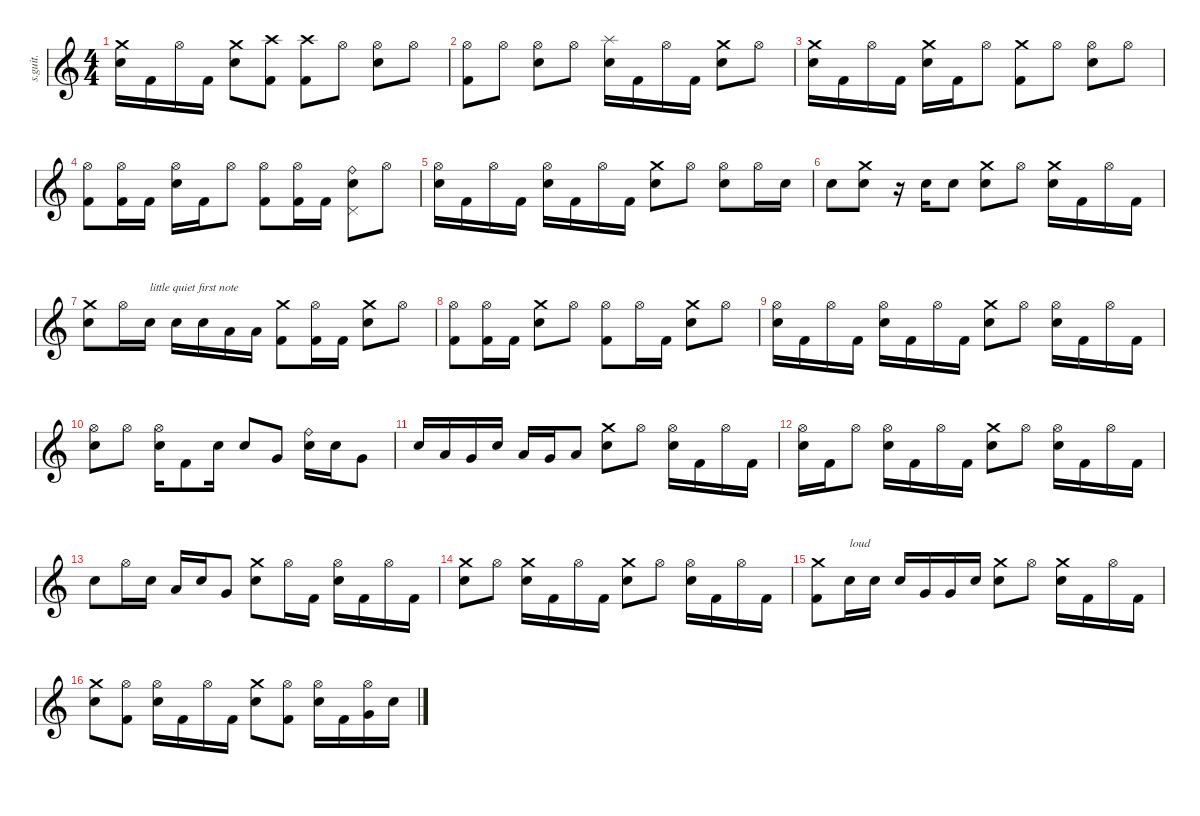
\defaultSystemsLayout 4
\hideDynamics
\bracketExtendMode nobrackets
\track ("Lars Ulrich" "s.guit.") {instrument percussion}
\staff {score}
\articulation defaults
\ts (4 4)
\tempo (69 hide)
\clef g2
\ks c
("Crash medium (hit)" "Snare (hit) 2").16{lyrics (0 "") lyrics (1 "") lyrics (2 "") lyrics (3 "") lyrics (4 "") dy fff} "Kick (hit) 2".16{lyrics (0 "") lyrics (1 "") lyrics (2 "") lyrics (3 "") lyrics (4 "")} "Hi-Hat (open)".16{lyrics (0 "") lyrics (1 "") lyrics (2 "") lyrics (3 "") lyrics (4 "") dy f} "Kick (hit) 2".16{lyrics (0 "") lyrics (1 "") lyrics (2 "") lyrics (3 "") lyrics (4 "") dy fff} ("Crash medium (hit)" "Snare (hit) 2").8{lyrics (0 "") lyrics (1 "") lyrics (2 "") lyrics (3 "") lyrics (4 "")} ("Crash high (hit)" "Kick (hit) 2").8{lyrics (0 "") lyrics (1 "") lyrics (2 "") lyrics (3 "") lyrics (4 "")} ("Crash high (hit)" "Kick (hit) 2").8{lyrics (0 "") lyrics (1 "") lyrics (2 "") lyrics (3 "") lyrics (4 "")} "Hi-Hat (open)".8{lyrics (0 "") lyrics (1 "") lyrics (2 "") lyrics (3 "") lyrics (4 "") dy f} ("Hi-Hat (open)" "Snare (hit) 2").8{lyrics (0 "") lyrics (1 "") lyrics (2 "") lyrics (3 "") lyrics (4 "")} "Hi-Hat (open)".8{lyrics (0 "") lyrics (1 "") lyrics (2 "") lyrics (3 "") lyrics (4 "")} |
("Hi-Hat (open)" "Kick (hit) 2").8{lyrics (0 "") lyrics (1 "") lyrics (2 "") lyrics (3 "") lyrics (4 "")} "Hi-Hat (open)".8{lyrics (0 "") lyrics (1 "") lyrics (2 "") lyrics (3 "") lyrics (4 "")} ("Hi-Hat (open)" "Snare (hit) 2").8{lyrics (0 "") lyrics (1 "") lyrics (2 "") lyrics (3 "") lyrics (4 "")} "Hi-Hat (open)".8{lyrics (0 "") lyrics (1 "") lyrics (2 "") lyrics (3 "") lyrics (4 "")} ("Splash (hit)" "Snare (hit) 2").16{lyrics (0 "") lyrics (1 "") lyrics (2 "") lyrics (3 "") lyrics (4 "") dy fff} "Kick (hit) 2".16{lyrics (0 "") lyrics (1 "") lyrics (2 "") lyrics (3 "") lyrics (4 "")} "Hi-Hat (open)".16{lyrics (0 "") lyrics (1 "") lyrics (2 "") lyrics (3 "") lyrics (4 "") dy f} "Kick (hit) 2".16{lyrics (0 "") lyrics (1 "") lyrics (2 "") lyrics (3 "") lyrics (4 "") dy fff} ("Crash medium (hit)" "Snare (hit) 2").8{lyrics (0 "") lyrics (1 "") lyrics (2 "") lyrics (3 "") lyrics (4 "")} "Hi-Hat (open)".8{lyrics (0 "") lyrics (1 "") lyrics (2 "") lyrics (3 "") lyrics (4 "") dy f} |
("Crash medium (hit)" "Snare (hit) 2").16{lyrics (0 "") lyrics (1 "") lyrics (2 "") lyrics (3 "") lyrics (4 "") dy fff} "Kick (hit) 2".16{lyrics (0 "") lyrics (1 "") lyrics (2 "") lyrics (3 "") lyrics (4 "")} "Hi-Hat (open)".16{lyrics (0 "") lyrics (1 "") lyrics (2 "") lyrics (3 "") lyrics (4 "") dy f} "Kick (hit) 2".16{lyrics (0 "") lyrics (1 "") lyrics (2 "") lyrics (3 "") lyrics (4 "") dy fff} ("Crash medium (hit)" "Snare (hit) 2").16{lyrics (0 "") lyrics (1 "") lyrics (2 "") lyrics (3 "") lyrics (4 "")} "Kick (hit) 2".16{lyrics (0 "") lyrics (1 "") lyrics (2 "") lyrics (3 "") lyrics (4 "")} "Hi-Hat (open)".8{lyrics (0 "") lyrics (1 "") lyrics (2 "") lyrics (3 "") lyrics (4 "") dy f} ("Crash medium (hit)" "Kick (hit) 2").8{lyrics (0 "") lyrics (1 "") lyrics (2 "") lyrics (3 "") lyrics (4 "") dy fff} "Hi-Hat (open)".8{lyrics (0 "") lyrics (1 "") lyrics (2 "") lyrics (3 "") lyrics (4 "") dy f} ("Hi-Hat (open)" "Snare (hit) 2").8{lyrics (0 "") lyrics (1 "") lyrics (2 "") lyrics (3 "") lyrics (4 "")} "Hi-Hat (open)".8{lyrics (0 "") lyrics (1 "") lyrics (2 "") lyrics (3 "") lyrics (4 "")} |
("Hi-Hat (open)" "Kick (hit) 2").8{lyrics (0 "") lyrics (1 "") lyrics (2 "") lyrics (3 "") lyrics (4 "")} ("Hi-Hat (open)" "Kick (hit) 2").16{lyrics (0 "") lyrics (1 "") lyrics (2 "") lyrics (3 "") lyrics (4 "")} "Kick (hit) 2".16{lyrics (0 "") lyrics (1 "") lyrics (2 "") lyrics (3 "") lyrics (4 "") dy fff} ("Hi-Hat (open)" "Snare (hit) 2").16{lyrics (0 "") lyrics (1 "") lyrics (2 "") lyrics (3 "") lyrics (4 "") dy f} "Kick (hit) 2".16{lyrics (0 "") lyrics (1 "") lyrics (2 "") lyrics (3 "") lyrics (4 "") dy fff} "Hi-Hat (open)".8{lyrics (0 "") lyrics (1 "") lyrics (2 "") lyrics (3 "") lyrics (4 "") dy f} ("Hi-Hat (open)" "Kick (hit) 2").8{lyrics (0 "") lyrics (1 "") lyrics (2 "") lyrics (3 "") lyrics (4 "")} ("Hi-Hat (open)" "Kick (hit) 2").16{lyrics (0 "") lyrics (1 "") lyrics (2 "") lyrics (3 "") lyrics (4 "")} "Kick (hit) 2".16{lyrics (0 "") lyrics (1 "") lyrics (2 "") lyrics (3 "") lyrics (4 "") dy fff} ("Pedal Hi-Hat (hit)" "Ride (bell)" "Snare (hit) 2").8{lyrics (0 "") lyrics (1 "") lyrics (2 "") lyrics (3 "") lyrics (4 "") dy f} "Hi-Hat (open)".8{lyrics (0 "") lyrics (1 "") lyrics (2 "") lyrics (3 "") lyrics (4 "")} |
("Hi-Hat (open)" "Snare (hit) 2").16{lyrics (0 "") lyrics (1 "") lyrics (2 "") lyrics (3 "") lyrics (4 "")} "Kick (hit) 2".16{lyrics (0 "") lyrics (1 "") lyrics (2 "") lyrics (3 "") lyrics (4 "") dy fff} "Hi-Hat (open)".16{lyrics (0 "") lyrics (1 "") lyrics (2 "") lyrics (3 "") lyrics (4 "") dy f} "Kick (hit) 2".16{lyrics (0 "") lyrics (1 "") lyrics (2 "") lyrics (3 "") lyrics (4 "") dy fff} ("Hi-Hat (open)" "Snare (hit) 2").16{lyrics (0 "") lyrics (1 "") lyrics (2 "") lyrics (3 "") lyrics (4 "") dy f} "Kick (hit) 2".16{lyrics (0 "") lyrics (1 "") lyrics (2 "") lyrics (3 "") lyrics (4 "") dy fff} "Hi-Hat (open)".16{lyrics (0 "") lyrics (1 "") lyrics (2 "") lyrics (3 "") lyrics (4 "") dy f} "Kick (hit) 2".16{lyrics (0 "") lyrics (1 "") lyrics (2 "") lyrics (3 "") lyrics (4 "") dy fff} ("Crash medium (hit)" "Snare (hit) 2").8{lyrics (0 "") lyrics (1 "") lyrics (2 "") lyrics (3 "") lyrics (4 "")} "Hi-Hat (open)".8{lyrics (0 "") lyrics (1 "") lyrics (2 "") lyrics (3 "") lyrics (4 "") dy f} ("Hi-Hat (open)" "Snare (hit) 2").8{lyrics (0 "") lyrics (1 "") lyrics (2 "") lyrics (3 "") lyrics (4 "")} "Hi-Hat (open)".16{lyrics (0 "") lyrics (1 "") lyrics (2 "") lyrics (3 "") lyrics (4 "")} "Snare (hit) 2".16{lyrics (0 "") lyrics (1 "") lyrics (2 "") lyrics (3 "") lyrics (4 "") dy fff} |
"Snare (hit) 2".8{lyrics (0 "") lyrics (1 "") lyrics (2 "") lyrics (3 "") lyrics (4 "")} ("Crash medium (hit)" "Snare (hit) 2").8{lyrics (0 "") lyrics (1 "") lyrics (2 "") lyrics (3 "") lyrics (4 "")} r.16 "Snare (hit) 2".16{lyrics (0 "") lyrics (1 "") lyrics (2 "") lyrics (3 "") lyrics (4 "")} "Snare (hit) 2".8{lyrics (0 "") lyrics (1 "") lyrics (2 "") lyrics (3 "") lyrics (4 "")} ("Crash medium (hit)" "Snare (hit) 2").8{lyrics (0 "") lyrics (1 "") lyrics (2 "") lyrics (3 "") lyrics (4 "")} "Hi-Hat (open)".8{lyrics (0 "") lyrics (1 "") lyrics (2 "") lyrics (3 "") lyrics (4 "") dy f} ("Crash medium (hit)" "Snare (hit) 2").16{lyrics (0 "") lyrics (1 "") lyrics (2 "") lyrics (3 "") lyrics (4 "") dy fff} "Kick (hit) 2".16{lyrics (0 "") lyrics (1 "") lyrics (2 "") lyrics (3 "") lyrics (4 "")} "Hi-Hat (open)".16{lyrics (0 "") lyrics (1 "") lyrics (2 "") lyrics (3 "") lyrics (4 "") dy f} "Kick (hit) 2".16{lyrics (0 "") lyrics (1 "") lyrics (2 "") lyrics (3 "") lyrics (4 "") dy fff} |
("Crash medium (hit)" "Snare (hit) 2").8{lyrics (0 "") lyrics (1 "") lyrics (2 "") lyrics (3 "") lyrics (4 "")} "Hi-Hat (open)".16{lyrics (0 "") lyrics (1 "") lyrics (2 "") lyrics (3 "") lyrics (4 "") dy f} "Snare (hit) 2".16{txt "little quiet first note" lyrics (0 "") lyrics (1 "") lyrics (2 "") lyrics (3 "") lyrics (4 "")} "Snare (hit) 2".16{lyrics (0 "") lyrics (1 "") lyrics (2 "") lyrics (3 "") lyrics (4 "") dy fff} "Snare (hit) 2".16{lyrics (0 "") lyrics (1 "") lyrics (2 "") lyrics (3 "") lyrics (4 "")} "Low Floor Tom (hit)".16{lyrics (0 "") lyrics (1 "") lyrics (2 "") lyrics (3 "") lyrics (4 "")} "Low Floor Tom (hit)".16{lyrics (0 "") lyrics (1 "") lyrics (2 "") lyrics (3 "") lyrics (4 "")} ("Crash medium (hit)" "Kick (hit) 2").8{lyrics (0 "") lyrics (1 "") lyrics (2 "") lyrics (3 "") lyrics (4 "")} ("Hi-Hat (open)" "Kick (hit) 2").16{lyrics (0 "") lyrics (1 "") lyrics (2 "") lyrics (3 "") lyrics (4 "") dy f} "Kick (hit) 2".16{lyrics (0 "") lyrics (1 "") lyrics (2 "") lyrics (3 "") lyrics (4 "") dy fff} ("Crash medium (hit)" "Snare (hit) 2").8{lyrics (0 "") lyrics (1 "") lyrics (2 "") lyrics (3 "") lyrics (4 "")} "Hi-Hat (open)".8{lyrics (0 "") lyrics (1 "") lyrics (2 "") lyrics (3 "") lyrics (4 "") dy f} |
("Hi-Hat (open)" "Kick (hit) 2").8{lyrics (0 "") lyrics (1 "") lyrics (2 "") lyrics (3 "") lyrics (4 "")} ("Hi-Hat (open)" "Kick (hit) 2").16{lyrics (0 "") lyrics (1 "") lyrics (2 "") lyrics (3 "") lyrics (4 "")} "Kick (hit) 2".16{lyrics (0 "") lyrics (1 "") lyrics (2 "") lyrics (3 "") lyrics (4 "") dy fff} ("Crash medium (hit)" "Snare (hit) 2").8{lyrics (0 "") lyrics (1 "") lyrics (2 "") lyrics (3 "") lyrics (4 "")} "Hi-Hat (open)".8{lyrics (0 "") lyrics (1 "") lyrics (2 "") lyrics (3 "") lyrics (4 "") dy f} ("Hi-Hat (open)" "Kick (hit) 2").8{lyrics (0 "") lyrics (1 "") lyrics (2 "") lyrics (3 "") lyrics (4 "")} "Hi-Hat (open)".16{lyrics (0 "") lyrics (1 "") lyrics (2 "") lyrics (3 "") lyrics (4 "")} "Kick (hit) 2".16{lyrics (0 "") lyrics (1 "") lyrics (2 "") lyrics (3 "") lyrics (4 "") dy fff} ("Crash medium (hit)" "Snare (hit) 2").8{lyrics (0 "") lyrics (1 "") lyrics (2 "") lyrics (3 "") lyrics (4 "")} "Hi-Hat (open)".8{lyrics (0 "") lyrics (1 "") lyrics (2 "") lyrics (3 "") lyrics (4 "") dy f} |
("Hi-Hat (open)" "Snare (hit) 2").16{lyrics (0 "") lyrics (1 "") lyrics (2 "") lyrics (3 "") lyrics (4 "")} "Kick (hit) 2".16{lyrics (0 "") lyrics (1 "") lyrics (2 "") lyrics (3 "") lyrics (4 "") dy fff} "Hi-Hat (open)".16{lyrics (0 "") lyrics (1 "") lyrics (2 "") lyrics (3 "") lyrics (4 "") dy f} "Kick (hit) 2".16{lyrics (0 "") lyrics (1 "") lyrics (2 "") lyrics (3 "") lyrics (4 "") dy fff} ("Hi-Hat (open)" "Snare (hit) 2").16{lyrics (0 "") lyrics (1 "") lyrics (2 "") lyrics (3 "") lyrics (4 "") dy f} "Kick (hit) 2".16{lyrics (0 "") lyrics (1 "") lyrics (2 "") lyrics (3 "") lyrics (4 "") dy fff} "Hi-Hat (open)".16{lyrics (0 "") lyrics (1 "") lyrics (2 "") lyrics (3 "") lyrics (4 "") dy f} "Kick (hit) 2".16{lyrics (0 "") lyrics (1 "") lyrics (2 "") lyrics (3 "") lyrics (4 "") dy fff} ("Crash medium (hit)" "Snare (hit) 2").8{lyrics (0 "") lyrics (1 "") lyrics (2 "") lyrics (3 "") lyrics (4 "")} "Hi-Hat (open)".8{lyrics (0 "") lyrics (1 "") lyrics (2 "") lyrics (3 "") lyrics (4 "") dy f} ("Hi-Hat (open)" "Snare (hit) 2").16{lyrics (0 "") lyrics (1 "") lyrics (2 "") lyrics (3 "") lyrics (4 "")} "Kick (hit) 2".16{lyrics (0 "") lyrics (1 "") lyrics (2 "") lyrics (3 "") lyrics (4 "") dy fff} "Hi-Hat (open)".16{lyrics (0 "") lyrics (1 "") lyrics (2 "") lyrics (3 "") lyrics (4 "") dy f} "Kick (hit) 2".16{lyrics (0 "") lyrics (1 "") lyrics (2 "") lyrics (3 "") lyrics (4 "") dy fff} |
("Hi-Hat (open)" "Snare (hit) 2").8{lyrics (0 "") lyrics (1 "") lyrics (2 "") lyrics (3 "") lyrics (4 "") dy f} "Hi-Hat (open)".8{lyrics (0 "") lyrics (1 "") lyrics (2 "") lyrics (3 "") lyrics (4 "")} ("Hi-Hat (open)" "Snare (hit) 2").16{lyrics (0 "") lyrics (1 "") lyrics (2 "") lyrics (3 "") lyrics (4 "")} "Kick (hit) 2".8{lyrics (0 "") lyrics (1 "") lyrics (2 "") lyrics (3 "") lyrics (4 "") dy fff} "Snare (hit) 2".16{lyrics (0 "") lyrics (1 "") lyrics (2 "") lyrics (3 "") lyrics (4 "")} "Snare (hit) 2".8{lyrics (0 "") lyrics (1 "") lyrics (2 "") lyrics (3 "") lyrics (4 "")} "Very Low Tom (hit)".8{lyrics (0 "") lyrics (1 "") lyrics (2 "") lyrics (3 "") lyrics (4 "")} ("Ride (bell)" "Snare (hit) 2").16{lyrics (0 "") lyrics (1 "") lyrics (2 "") lyrics (3 "") lyrics (4 "") dy f} "Snare (hit) 2".16{lyrics (0 "") lyrics (1 "") lyrics (2 "") lyrics (3 "") lyrics (4 "") dy fff} "Very Low Tom (hit)".8{lyrics (0 "") lyrics (1 "") lyrics (2 "") lyrics (3 "") lyrics (4 "")} |
"Snare (hit) 2".16{lyrics (0 "") lyrics (1 "") lyrics (2 "") lyrics (3 "") lyrics (4 "")} "Low Tom (hit)".16{lyrics (0 "") lyrics (1 "") lyrics (2 "") lyrics (3 "") lyrics (4 "")} "Very Low Tom (hit)".16{lyrics (0 "") lyrics (1 "") lyrics (2 "") lyrics (3 "") lyrics (4 "")} "Snare (hit) 2".16{lyrics (0 "") lyrics (1 "") lyrics (2 "") lyrics (3 "") lyrics (4 "")} "Low Tom (hit)".16{lyrics (0 "") lyrics (1 "") lyrics (2 "") lyrics (3 "") lyrics (4 "")} "Very Low Tom (hit)".16{lyrics (0 "") lyrics (1 "") lyrics (2 "") lyrics (3 "") lyrics (4 "")} "Low Floor Tom (hit)".8{lyrics (0 "") lyrics (1 "") lyrics (2 "") lyrics (3 "") lyrics (4 "")} ("Crash medium (hit)" "Snare (hit) 2").8{lyrics (0 "") lyrics (1 "") lyrics (2 "") lyrics (3 "") lyrics (4 "")} "Hi-Hat (open)".8{lyrics (0 "") lyrics (1 "") lyrics (2 "") lyrics (3 "") lyrics (4 "") dy f} ("Hi-Hat (open)" "Snare (hit) 2").16{lyrics (0 "") lyrics (1 "") lyrics (2 "") lyrics (3 "") lyrics (4 "")} "Kick (hit) 2".16{lyrics (0 "") lyrics (1 "") lyrics (2 "") lyrics (3 "") lyrics (4 "") dy fff} "Hi-Hat (open)".16{lyrics (0 "") lyrics (1 "") lyrics (2 "") lyrics (3 "") lyrics (4 "") dy f} "Kick (hit) 2".16{lyrics (0 "") lyrics (1 "") lyrics (2 "") lyrics (3 "") lyrics (4 "") dy fff} |
("Hi-Hat (open)" "Snare (hit) 2").16{lyrics (0 "") lyrics (1 "") lyrics (2 "") lyrics (3 "") lyrics (4 "") dy f} "Kick (hit) 2".16{lyrics (0 "") lyrics (1 "") lyrics (2 "") lyrics (3 "") lyrics (4 "") dy fff} "Hi-Hat (open)".8{lyrics (0 "") lyrics (1 "") lyrics (2 "") lyrics (3 "") lyrics (4 "") dy f} ("Hi-Hat (open)" "Snare (hit) 2").16{lyrics (0 "") lyrics (1 "") lyrics (2 "") lyrics (3 "") lyrics (4 "")} "Kick (hit) 2".16{lyrics (0 "") lyrics (1 "") lyrics (2 "") lyrics (3 "") lyrics (4 "") dy fff} "Hi-Hat (open)".16{lyrics (0 "") lyrics (1 "") lyrics (2 "") lyrics (3 "") lyrics (4 "") dy f} "Kick (hit) 2".16{lyrics (0 "") lyrics (1 "") lyrics (2 "") lyrics (3 "") lyrics (4 "") dy fff} ("Crash medium (hit)" "Snare (hit) 2").8{lyrics (0 "") lyrics (1 "") lyrics (2 "") lyrics (3 "") lyrics (4 "")} "Hi-Hat (open)".8{lyrics (0 "") lyrics (1 "") lyrics (2 "") lyrics (3 "") lyrics (4 "") dy f} ("Hi-Hat (open)" "Snare (hit) 2").16{lyrics (0 "") lyrics (1 "") lyrics (2 "") lyrics (3 "") lyrics (4 "")} "Kick (hit) 2".16{lyrics (0 "") lyrics (1 "") lyrics (2 "") lyrics (3 "") lyrics (4 "") dy fff} "Hi-Hat (open)".16{lyrics (0 "") lyrics (1 "") lyrics (2 "") lyrics (3 "") lyrics (4 "") dy f} "Kick (hit) 2".16{lyrics (0 "") lyrics (1 "") lyrics (2 "") lyrics (3 "") lyrics (4 "") dy fff} |
"Snare (hit) 2".8{lyrics (0 "") lyrics (1 "") lyrics (2 "") lyrics (3 "") lyrics (4 "") dy f} "Hi-Hat (open)".16{lyrics (0 "") lyrics (1 "") lyrics (2 "") lyrics (3 "") lyrics (4 "")} "Snare (hit) 2".16{lyrics (0 "") lyrics (1 "") lyrics (2 "") lyrics (3 "") lyrics (4 "")} "Low Tom (hit)".16{lyrics (0 "") lyrics (1 "") lyrics (2 "") lyrics (3 "") lyrics (4 "") dy fff} "Snare (hit) 2".16{lyrics (0 "") lyrics (1 "") lyrics (2 "") lyrics (3 "") lyrics (4 "")} "Very Low Tom (hit)".8{lyrics (0 "") lyrics (1 "") lyrics (2 "") lyrics (3 "") lyrics (4 "")} ("Crash medium (hit)" "Snare (hit) 2").8{lyrics (0 "") lyrics (1 "") lyrics (2 "") lyrics (3 "") lyrics (4 "") dy f} "Hi-Hat (open)".16{lyrics (0 "") lyrics (1 "") lyrics (2 "") lyrics (3 "") lyrics (4 "")} "Kick (hit) 2".16{lyrics (0 "") lyrics (1 "") lyrics (2 "") lyrics (3 "") lyrics (4 "") dy fff} ("Hi-Hat (open)" "Snare (hit) 2").16{lyrics (0 "") lyrics (1 "") lyrics (2 "") lyrics (3 "") lyrics (4 "") dy f} "Kick (hit) 2".16{lyrics (0 "") lyrics (1 "") lyrics (2 "") lyrics (3 "") lyrics (4 "") dy fff} "Hi-Hat (open)".16{lyrics (0 "") lyrics (1 "") lyrics (2 "") lyrics (3 "") lyrics (4 "") dy f} "Kick (hit) 2".16{lyrics (0 "") lyrics (1 "") lyrics (2 "") lyrics (3 "") lyrics (4 "") dy fff} |
("Crash medium (hit)" "Snare (hit) 2").8{lyrics (0 "") lyrics (1 "") lyrics (2 "") lyrics (3 "") lyrics (4 "")} "Hi-Hat (open)".8{lyrics (0 "") lyrics (1 "") lyrics (2 "") lyrics (3 "") lyrics (4 "") dy f} ("Crash medium (hit)" "Snare (hit) 2").16{lyrics (0 "") lyrics (1 "") lyrics (2 "") lyrics (3 "") lyrics (4 "") dy fff} "Kick (hit) 2".16{lyrics (0 "") lyrics (1 "") lyrics (2 "") lyrics (3 "") lyrics (4 "")} "Hi-Hat (open)".16{lyrics (0 "") lyrics (1 "") lyrics (2 "") lyrics (3 "") lyrics (4 "") dy f} "Kick (hit) 2".16{lyrics (0 "") lyrics (1 "") lyrics (2 "") lyrics (3 "") lyrics (4 "") dy fff} ("Crash medium (hit)" "Snare (hit) 2").8{lyrics (0 "") lyrics (1 "") lyrics (2 "") lyrics (3 "") lyrics (4 "")} "Hi-Hat (open)".8{lyrics (0 "") lyrics (1 "") lyrics (2 "") lyrics (3 "") lyrics (4 "") dy f} ("Hi-Hat (open)" "Snare (hit) 2").16{lyrics (0 "") lyrics (1 "") lyrics (2 "") lyrics (3 "") lyrics (4 "")} "Kick (hit) 2".16{lyrics (0 "") lyrics (1 "") lyrics (2 "") lyrics (3 "") lyrics (4 "") dy fff} "Hi-Hat (open)".16{lyrics (0 "") lyrics (1 "") lyrics (2 "") lyrics (3 "") lyrics (4 "") dy f} "Kick (hit) 2".16{lyrics (0 "") lyrics (1 "") lyrics (2 "") lyrics (3 "") lyrics (4 "") dy fff} |
("Crash medium (hit)" "Kick (hit) 2").8{lyrics (0 "") lyrics (1 "") lyrics (2 "") lyrics (3 "") lyrics (4 "") dy f} "Snare (hit) 2".16{txt "loud" lyrics (0 "") lyrics (1 "") lyrics (2 "") lyrics (3 "") lyrics (4 "") dy fff} "Snare (hit) 2".16{lyrics (0 "") lyrics (1 "") lyrics (2 "") lyrics (3 "") lyrics (4 "") dy f} "Snare (hit) 2".16{lyrics (0 "") lyrics (1 "") lyrics (2 "") lyrics (3 "") lyrics (4 "")} "Very Low Tom (hit)".16{lyrics (0 "") lyrics (1 "") lyrics (2 "") lyrics (3 "") lyrics (4 "") dy fff} "Very Low Tom (hit)".16{lyrics (0 "") lyrics (1 "") lyrics (2 "") lyrics (3 "") lyrics (4 "")} "Snare (hit) 2".16{lyrics (0 "") lyrics (1 "") lyrics (2 "") lyrics (3 "") lyrics (4 "") dy f} ("Crash medium (hit)" "Snare (hit) 2").8{lyrics (0 "") lyrics (1 "") lyrics (2 "") lyrics (3 "") lyrics (4 "")} "Hi-Hat (open)".8{lyrics (0 "") lyrics (1 "") lyrics (2 "") lyrics (3 "") lyrics (4 "")} ("Crash medium (hit)" "Snare (hit) 2").16{lyrics (0 "") lyrics (1 "") lyrics (2 "") lyrics (3 "") lyrics (4 "")} "Kick (hit) 2".16{lyrics (0 "") lyrics (1 "") lyrics (2 "") lyrics (3 "") lyrics (4 "") dy fff} "Hi-Hat (open)".16{lyrics (0 "") lyrics (1 "") lyrics (2 "") lyrics (3 "") lyrics (4 "") dy f} "Kick (hit) 2".16{lyrics (0 "") lyrics (1 "") lyrics (2 "") lyrics (3 "") lyrics (4 "") dy fff} |
("Crash medium (hit)" "Snare (hit) 2").8{lyrics (0 "") lyrics (1 "") lyrics (2 "") lyrics (3 "") lyrics (4 "") dy f} ("Hi-Hat (open)" "Kick (hit) 2").8{lyrics (0 "") lyrics (1 "") lyrics (2 "") lyrics (3 "") lyrics (4 "")} ("Hi-Hat (open)" "Snare (hit) 2").16{lyrics (0 "") lyrics (1 "") lyrics (2 "") lyrics (3 "") lyrics (4 "")} "Kick (hit) 2".16{lyrics (0 "") lyrics (1 "") lyrics (2 "") lyrics (3 "") lyrics (4 "") dy fff} "Hi-Hat (open)".16{lyrics (0 "") lyrics (1 "") lyrics (2 "") lyrics (3 "") lyrics (4 "") dy f} "Kick (hit) 2".16{lyrics (0 "") lyrics (1 "") lyrics (2 "") lyrics (3 "") lyrics (4 "") dy fff} ("Crash medium (hit)" "Snare (hit) 2").8{lyrics (0 "") lyrics (1 "") lyrics (2 "") lyrics (3 "") lyrics (4 "") dy f} ("Hi-Hat (open)" "Kick (hit) 2").8{lyrics (0 "") lyrics (1 "") lyrics (2 "") lyrics (3 "") lyrics (4 "")} ("Hi-Hat (open)" "Snare (hit) 2").16{lyrics (0 "") lyrics (1 "") lyrics (2 "") lyrics (3 "") lyrics (4 "")} "Kick (hit) 2".16{lyrics (0 "") lyrics (1 "") lyrics (2 "") lyrics (3 "") lyrics (4 "") dy fff} ("Hi-Hat (open)" "Very Low Tom (hit)").16{lyrics (0 "") lyrics (1 "") lyrics (2 "") lyrics (3 "") lyrics (4 "") dy f} "Snare (hit) 2".16{lyrics (0 "") lyrics (1 "") lyrics (2 "") lyrics (3 "") lyrics (4 "")}
